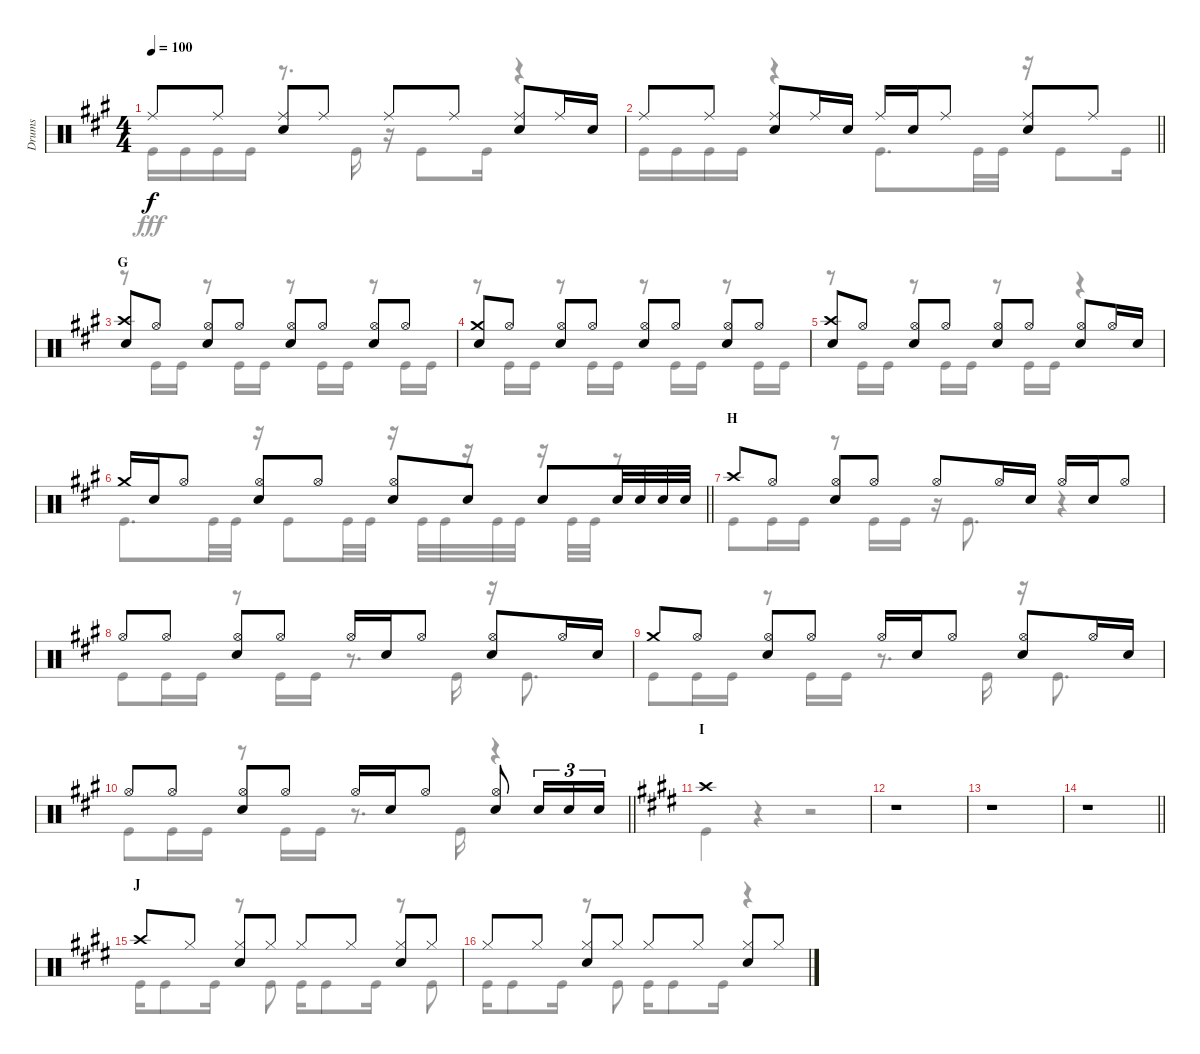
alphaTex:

\track ("Drums" "Drums") {instrument percussion}
\staff {score}
\articulation defaults
\voice
\ts (4 4)
\tempo 100
\clef neutral
\ks a "Ride (middle)".8{dy f} "Ride (middle)".8
("Ride (middle)" "Snare (hit) 2").8 "Ride (middle)".8 "Ride (middle)".8 "Ride (middle)".8 ("Ride (middle)" "Snare (hit) 2").8 "Ride (middle)".16 "Snare (hit) 2".16 |
\barLineRight lightlight "Ride (middle)".8 "Ride (middle)".8
("Ride (middle)" "Snare (hit) 2").8 "Ride (middle)".16 "Snare (hit) 2".16 "Ride (middle)".16 "Snare (hit) 2".16 "Ride (middle)".8 ("Ride (middle)" "Snare (hit) 2").8 "Ride (middle)".8 |
\section ("" "G")
("Crash high (hit)" "Snare (hit) 2").8 "Hi-Hat (open)".8 ("Hi-Hat (open)" "Snare (hit) 2").8 "Hi-Hat (open)".8 ("Hi-Hat (open)" "Snare (hit) 2").8 "Hi-Hat (open)".8 ("Hi-Hat (open)" "Snare (hit) 2").8 "Hi-Hat (open)".8 |
("Crash medium (hit)" "Snare (hit) 2").8 "Hi-Hat (open)".8 ("Hi-Hat (open)" "Snare (hit) 2").8 "Hi-Hat (open)".8 ("Hi-Hat (open)" "Snare (hit) 2").8 "Hi-Hat (open)".8 ("Hi-Hat (open)" "Snare (hit) 2").8 "Hi-Hat (open)".8 |
("Crash high (hit)" "Snare (hit) 2").8 "Hi-Hat (open)".8 ("Hi-Hat (open)" "Snare (hit) 2").8 "Hi-Hat (open)".8 ("Hi-Hat (open)" "Snare (hit) 2").8 "Hi-Hat (open)".8 ("Hi-Hat (open)" "Snare (hit) 2").8 "Hi-Hat (open)".16 "Snare (hit) 2".16 |
\barLineRight lightlight "Crash medium (hit)".16 "Snare (hit) 2".16 "Hi-Hat (open)".8
("Hi-Hat (open)" "Snare (hit) 2").8 "Hi-Hat (open)".8 ("Hi-Hat (open)" "Snare (hit) 2").8 "Snare (hit) 2".8 "Snare (hit) 2".8 "Snare (hit) 2".32 "Snare (hit) 2".32 "Snare (hit) 2".32 "Snare (hit) 2".32 |
\section ("" "H")
"Crash high (hit)".8 "Hi-Hat (open)".8 ("Hi-Hat (open)" "Snare (hit) 2").8 "Hi-Hat (open)".8 "Hi-Hat (open)".8 "Hi-Hat (open)".16 "Snare (hit) 2".16 "Hi-Hat (open)".16 "Snare (hit) 2".16 "Hi-Hat (open)".8 |
"Hi-Hat (open)".8 "Hi-Hat (open)".8 ("Hi-Hat (open)" "Snare (hit) 2").8 "Hi-Hat (open)".8 "Hi-Hat (open)".16 "Snare (hit) 2".16 "Hi-Hat (open)".8 ("Hi-Hat (open)" "Snare (hit) 2").8 "Hi-Hat (open)".16 "Snare (hit) 2".16 |
"Crash medium (hit)".8 "Hi-Hat (open)".8 ("Hi-Hat (open)" "Snare (hit) 2").8 "Hi-Hat (open)".8 "Hi-Hat (open)".16 "Snare (hit) 2".16 "Hi-Hat (open)".8 ("Hi-Hat (open)" "Snare (hit) 2").8 "Hi-Hat (open)".16 "Snare (hit) 2".16 |
\barLineRight lightlight "Hi-Hat (open)".8 "Hi-Hat (open)".8
("Hi-Hat (open)" "Snare (hit) 2").8 "Hi-Hat (open)".8 "Hi-Hat (open)".16 "Snare (hit) 2".16 "Hi-Hat (open)".8 ("Hi-Hat (open)" "Snare (hit) 2").8 "Snare (hit) 2".16{tu (3 2)} "Snare (hit) 2".16{tu (3 2)} "Snare (hit) 2".16{tu (3 2)} |
\section ("" "I")
\ks e "Crash high (hit)".1
|
r.1 |
r.1 |
\barLineRight lightlight
r.1 |
\section ("" "J")
"Crash high (hit)".8 "Hi-Hat (closed)".8 ("Hi-Hat (closed)" "Snare (hit) 2").8 "Hi-Hat (closed)".8 "Hi-Hat (closed)".8 "Hi-Hat (closed)".8 ("Hi-Hat (closed)" "Snare (hit) 2").8 "Hi-Hat (closed)".8 |
"Hi-Hat (closed)".8 "Hi-Hat (closed)".8 ("Hi-Hat (closed)" "Snare (hit) 2").8 "Hi-Hat (closed)".8 "Hi-Hat (closed)".8 "Hi-Hat (closed)".8 ("Hi-Hat (closed)" "Snare (hit) 2").8 "Hi-Hat (closed)".8
\voice
\clef neutral
\ottava regular
\simile none
\ks a "Kick (hit)".16{dy fff} "Kick (hit)".16 "Kick (hit)".16 "Kick (hit)".16
r.8{d} "Kick (hit)".16 r.16 "Kick (hit)".8 "Kick (hit)".16 r.4 |
\barLineRight lightlight "Kick (hit)".16 "Kick (hit)".16 "Kick (hit)".16 "Kick (hit)".16
r.4 "Kick (hit)".8{d} "Kick (hit)".32 "Kick (hit)".32 r.16 "Kick (hit)".8 "Kick (hit)".16 |
r.8 "Kick (hit)".16 "Kick (hit)".16 r.8 "Kick (hit)".16 "Kick (hit)".16 r.8 "Kick (hit)".16 "Kick (hit)".16 r.8 "Kick (hit)".16 "Kick (hit)".16 |
r.8 "Kick (hit)".16 "Kick (hit)".16 r.8 "Kick (hit)".16 "Kick (hit)".16 r.8 "Kick (hit)".16 "Kick (hit)".16 r.8 "Kick (hit)".16 "Kick (hit)".16 |
r.8 "Kick (hit)".16 "Kick (hit)".16 r.8 "Kick (hit)".16 "Kick (hit)".16 r.8 "Kick (hit)".16 "Kick (hit)".16 r.4 |
\barLineRight lightlight "Kick (hit)".8{d} "Kick (hit)".32 "Kick (hit)".32
r.16 "Kick (hit)".8 "Kick (hit)".32 "Kick (hit)".32 r.16 "Kick (hit)".32 "Kick (hit)".32 r.16 "Kick (hit)".32 "Kick (hit)".32 r.16 "Kick (hit)".32 "Kick (hit)".32 r.8 |
"Kick (hit)".8 "Kick (hit)".16 "Kick (hit)".16 r.8 "Kick (hit)".16 "Kick (hit)".16 r.16 "Kick (hit)".8{d} r.4 |
"Kick (hit)".8 "Kick (hit)".16 "Kick (hit)".16 r.8 "Kick (hit)".16 "Kick (hit)".16 r.8{d} "Kick (hit)".16 r.16 "Kick (hit)".8{d} |
"Kick (hit)".8 "Kick (hit)".16 "Kick (hit)".16 r.8 "Kick (hit)".16 "Kick (hit)".16 r.8{d} "Kick (hit)".16 r.16 "Kick (hit)".8{d} |
\barLineRight lightlight "Kick (hit)".8 "Kick (hit)".16 "Kick (hit)".16
r.8 "Kick (hit)".16 "Kick (hit)".16 r.8{d} "Kick (hit)".16 r.4 |
\ks e "Kick (hit)".4
r.4 r.2 |
r.1 |
r.1 |
\barLineRight lightlight
r.1 |
"Kick (hit)".16 "Kick (hit)".8 "Kick (hit)".16 r.8 "Kick (hit)".8 "Kick (hit)".16 "Kick (hit)".8 "Kick (hit)".16 r.8 "Kick (hit)".8 |
"Kick (hit)".16 "Kick (hit)".8 "Kick (hit)".16 r.8 "Kick (hit)".8 "Kick (hit)".16 "Kick (hit)".8 "Kick (hit)".16 r.4
